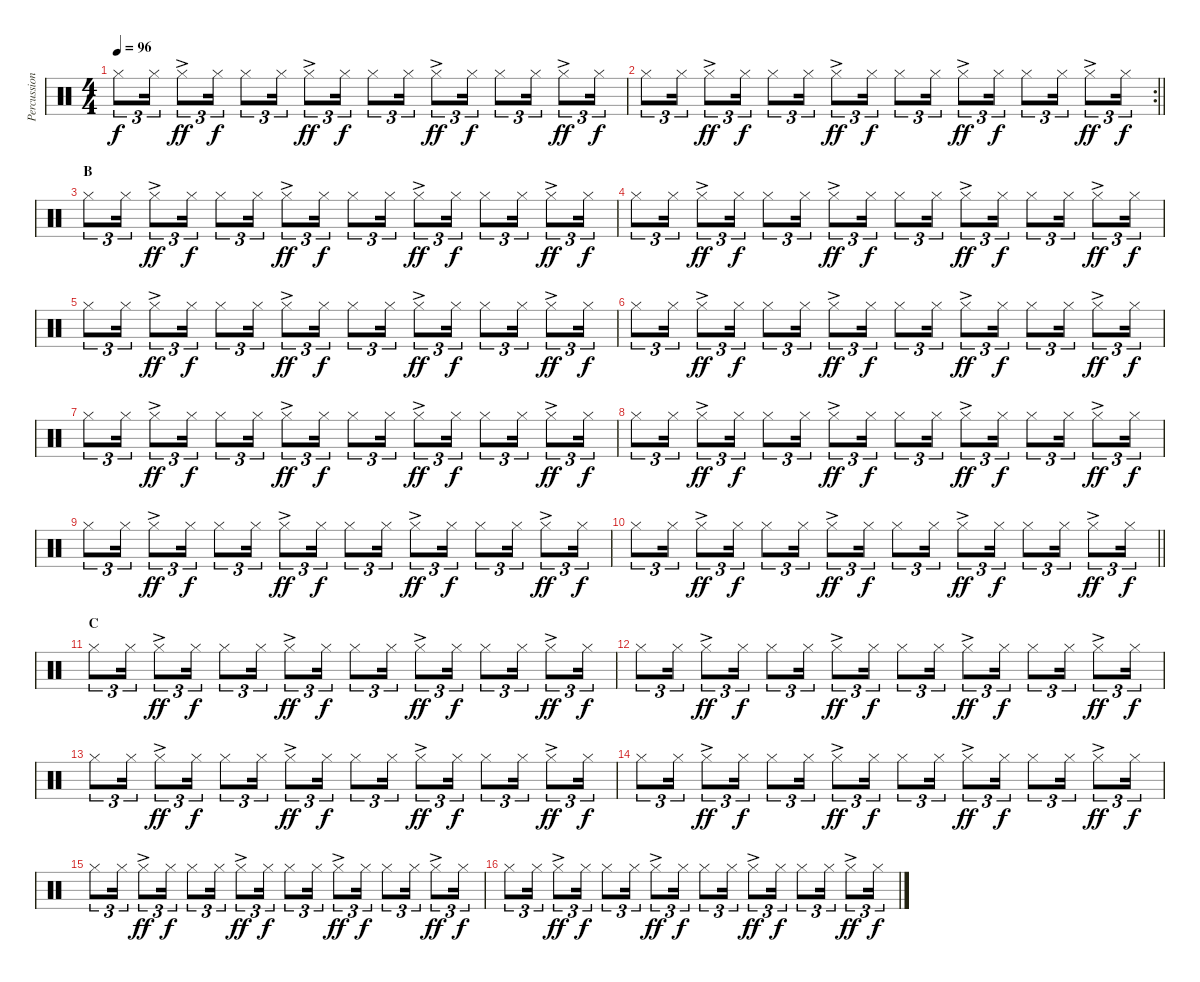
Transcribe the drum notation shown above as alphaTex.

\track ("Percussion" "Percussion") {instrument percussion}
\staff {score}
\articulation defaults
\ts (4 4)
\tempo 96
\clef neutral
\ks c "Hi-Hat (closed)".8{tu (3 2) dy f} "Hi-Hat (closed)".16{tu (3 2)} "Hi-Hat (closed)"{ac}.8{tu (3 2) dy ff} "Hi-Hat (closed)".16{tu (3 2) dy f} "Hi-Hat (closed)".8{tu (3 2)} "Hi-Hat (closed)".16{tu (3 2)} "Hi-Hat (closed)"{ac}.8{tu (3 2) dy ff} "Hi-Hat (closed)".16{tu (3 2) dy f} "Hi-Hat (closed)".8{tu (3 2)} "Hi-Hat (closed)".16{tu (3 2)} "Hi-Hat (closed)"{ac}.8{tu (3 2) dy ff} "Hi-Hat (closed)".16{tu (3 2) dy f} "Hi-Hat (closed)".8{tu (3 2)} "Hi-Hat (closed)".16{tu (3 2)} "Hi-Hat (closed)"{ac}.8{tu (3 2) dy ff} "Hi-Hat (closed)".16{tu (3 2) dy f}
|
\rc 2
\barLineRight lightlight "Hi-Hat (closed)".8{tu (3 2)} "Hi-Hat (closed)".16{tu (3 2)} "Hi-Hat (closed)"{ac}.8{tu (3 2) dy ff} "Hi-Hat (closed)".16{tu (3 2) dy f} "Hi-Hat (closed)".8{tu (3 2)} "Hi-Hat (closed)".16{tu (3 2)} "Hi-Hat (closed)"{ac}.8{tu (3 2) dy ff} "Hi-Hat (closed)".16{tu (3 2) dy f} "Hi-Hat (closed)".8{tu (3 2)} "Hi-Hat (closed)".16{tu (3 2)} "Hi-Hat (closed)"{ac}.8{tu (3 2) dy ff} "Hi-Hat (closed)".16{tu (3 2) dy f} "Hi-Hat (closed)".8{tu (3 2)} "Hi-Hat (closed)".16{tu (3 2)} "Hi-Hat (closed)"{ac}.8{tu (3 2) dy ff} "Hi-Hat (closed)".16{tu (3 2) dy f}
|
\section ("" "B")
"Hi-Hat (closed)".8{tu (3 2)} "Hi-Hat (closed)".16{tu (3 2)} "Hi-Hat (closed)"{ac}.8{tu (3 2) dy ff} "Hi-Hat (closed)".16{tu (3 2) dy f} "Hi-Hat (closed)".8{tu (3 2)} "Hi-Hat (closed)".16{tu (3 2)} "Hi-Hat (closed)"{ac}.8{tu (3 2) dy ff} "Hi-Hat (closed)".16{tu (3 2) dy f} "Hi-Hat (closed)".8{tu (3 2)} "Hi-Hat (closed)".16{tu (3 2)} "Hi-Hat (closed)"{ac}.8{tu (3 2) dy ff} "Hi-Hat (closed)".16{tu (3 2) dy f} "Hi-Hat (closed)".8{tu (3 2)} "Hi-Hat (closed)".16{tu (3 2)} "Hi-Hat (closed)"{ac}.8{tu (3 2) dy ff} "Hi-Hat (closed)".16{tu (3 2) dy f} |
"Hi-Hat (closed)".8{tu (3 2)} "Hi-Hat (closed)".16{tu (3 2)} "Hi-Hat (closed)"{ac}.8{tu (3 2) dy ff} "Hi-Hat (closed)".16{tu (3 2) dy f} "Hi-Hat (closed)".8{tu (3 2)} "Hi-Hat (closed)".16{tu (3 2)} "Hi-Hat (closed)"{ac}.8{tu (3 2) dy ff} "Hi-Hat (closed)".16{tu (3 2) dy f} "Hi-Hat (closed)".8{tu (3 2)} "Hi-Hat (closed)".16{tu (3 2)} "Hi-Hat (closed)"{ac}.8{tu (3 2) dy ff} "Hi-Hat (closed)".16{tu (3 2) dy f} "Hi-Hat (closed)".8{tu (3 2)} "Hi-Hat (closed)".16{tu (3 2)} "Hi-Hat (closed)"{ac}.8{tu (3 2) dy ff} "Hi-Hat (closed)".16{tu (3 2) dy f} |
"Hi-Hat (closed)".8{tu (3 2)} "Hi-Hat (closed)".16{tu (3 2)} "Hi-Hat (closed)"{ac}.8{tu (3 2) dy ff} "Hi-Hat (closed)".16{tu (3 2) dy f} "Hi-Hat (closed)".8{tu (3 2)} "Hi-Hat (closed)".16{tu (3 2)} "Hi-Hat (closed)"{ac}.8{tu (3 2) dy ff} "Hi-Hat (closed)".16{tu (3 2) dy f} "Hi-Hat (closed)".8{tu (3 2)} "Hi-Hat (closed)".16{tu (3 2)} "Hi-Hat (closed)"{ac}.8{tu (3 2) dy ff} "Hi-Hat (closed)".16{tu (3 2) dy f} "Hi-Hat (closed)".8{tu (3 2)} "Hi-Hat (closed)".16{tu (3 2)} "Hi-Hat (closed)"{ac}.8{tu (3 2) dy ff} "Hi-Hat (closed)".16{tu (3 2) dy f} |
"Hi-Hat (closed)".8{tu (3 2)} "Hi-Hat (closed)".16{tu (3 2)} "Hi-Hat (closed)"{ac}.8{tu (3 2) dy ff} "Hi-Hat (closed)".16{tu (3 2) dy f} "Hi-Hat (closed)".8{tu (3 2)} "Hi-Hat (closed)".16{tu (3 2)} "Hi-Hat (closed)"{ac}.8{tu (3 2) dy ff} "Hi-Hat (closed)".16{tu (3 2) dy f} "Hi-Hat (closed)".8{tu (3 2)} "Hi-Hat (closed)".16{tu (3 2)} "Hi-Hat (closed)"{ac}.8{tu (3 2) dy ff} "Hi-Hat (closed)".16{tu (3 2) dy f} "Hi-Hat (closed)".8{tu (3 2)} "Hi-Hat (closed)".16{tu (3 2)} "Hi-Hat (closed)"{ac}.8{tu (3 2) dy ff} "Hi-Hat (closed)".16{tu (3 2) dy f} |
"Hi-Hat (closed)".8{tu (3 2)} "Hi-Hat (closed)".16{tu (3 2)} "Hi-Hat (closed)"{ac}.8{tu (3 2) dy ff} "Hi-Hat (closed)".16{tu (3 2) dy f} "Hi-Hat (closed)".8{tu (3 2)} "Hi-Hat (closed)".16{tu (3 2)} "Hi-Hat (closed)"{ac}.8{tu (3 2) dy ff} "Hi-Hat (closed)".16{tu (3 2) dy f} "Hi-Hat (closed)".8{tu (3 2)} "Hi-Hat (closed)".16{tu (3 2)} "Hi-Hat (closed)"{ac}.8{tu (3 2) dy ff} "Hi-Hat (closed)".16{tu (3 2) dy f} "Hi-Hat (closed)".8{tu (3 2)} "Hi-Hat (closed)".16{tu (3 2)} "Hi-Hat (closed)"{ac}.8{tu (3 2) dy ff} "Hi-Hat (closed)".16{tu (3 2) dy f} |
"Hi-Hat (closed)".8{tu (3 2)} "Hi-Hat (closed)".16{tu (3 2)} "Hi-Hat (closed)"{ac}.8{tu (3 2) dy ff} "Hi-Hat (closed)".16{tu (3 2) dy f} "Hi-Hat (closed)".8{tu (3 2)} "Hi-Hat (closed)".16{tu (3 2)} "Hi-Hat (closed)"{ac}.8{tu (3 2) dy ff} "Hi-Hat (closed)".16{tu (3 2) dy f} "Hi-Hat (closed)".8{tu (3 2)} "Hi-Hat (closed)".16{tu (3 2)} "Hi-Hat (closed)"{ac}.8{tu (3 2) dy ff} "Hi-Hat (closed)".16{tu (3 2) dy f} "Hi-Hat (closed)".8{tu (3 2)} "Hi-Hat (closed)".16{tu (3 2)} "Hi-Hat (closed)"{ac}.8{tu (3 2) dy ff} "Hi-Hat (closed)".16{tu (3 2) dy f} |
"Hi-Hat (closed)".8{tu (3 2)} "Hi-Hat (closed)".16{tu (3 2)} "Hi-Hat (closed)"{ac}.8{tu (3 2) dy ff} "Hi-Hat (closed)".16{tu (3 2) dy f} "Hi-Hat (closed)".8{tu (3 2)} "Hi-Hat (closed)".16{tu (3 2)} "Hi-Hat (closed)"{ac}.8{tu (3 2) dy ff} "Hi-Hat (closed)".16{tu (3 2) dy f} "Hi-Hat (closed)".8{tu (3 2)} "Hi-Hat (closed)".16{tu (3 2)} "Hi-Hat (closed)"{ac}.8{tu (3 2) dy ff} "Hi-Hat (closed)".16{tu (3 2) dy f} "Hi-Hat (closed)".8{tu (3 2)} "Hi-Hat (closed)".16{tu (3 2)} "Hi-Hat (closed)"{ac}.8{tu (3 2) dy ff} "Hi-Hat (closed)".16{tu (3 2) dy f} |
\barLineRight lightlight "Hi-Hat (closed)".8{tu (3 2)} "Hi-Hat (closed)".16{tu (3 2)} "Hi-Hat (closed)"{ac}.8{tu (3 2) dy ff} "Hi-Hat (closed)".16{tu (3 2) dy f} "Hi-Hat (closed)".8{tu (3 2)} "Hi-Hat (closed)".16{tu (3 2)} "Hi-Hat (closed)"{ac}.8{tu (3 2) dy ff} "Hi-Hat (closed)".16{tu (3 2) dy f} "Hi-Hat (closed)".8{tu (3 2)} "Hi-Hat (closed)".16{tu (3 2)} "Hi-Hat (closed)"{ac}.8{tu (3 2) dy ff} "Hi-Hat (closed)".16{tu (3 2) dy f} "Hi-Hat (closed)".8{tu (3 2)} "Hi-Hat (closed)".16{tu (3 2)} "Hi-Hat (closed)"{ac}.8{tu (3 2) dy ff} "Hi-Hat (closed)".16{tu (3 2) dy f}
|
\section ("" "C")
"Hi-Hat (closed)".8{tu (3 2)} "Hi-Hat (closed)".16{tu (3 2)} "Hi-Hat (closed)"{ac}.8{tu (3 2) dy ff} "Hi-Hat (closed)".16{tu (3 2) dy f} "Hi-Hat (closed)".8{tu (3 2)} "Hi-Hat (closed)".16{tu (3 2)} "Hi-Hat (closed)"{ac}.8{tu (3 2) dy ff} "Hi-Hat (closed)".16{tu (3 2) dy f} "Hi-Hat (closed)".8{tu (3 2)} "Hi-Hat (closed)".16{tu (3 2)} "Hi-Hat (closed)"{ac}.8{tu (3 2) dy ff} "Hi-Hat (closed)".16{tu (3 2) dy f} "Hi-Hat (closed)".8{tu (3 2)} "Hi-Hat (closed)".16{tu (3 2)} "Hi-Hat (closed)"{ac}.8{tu (3 2) dy ff} "Hi-Hat (closed)".16{tu (3 2) dy f} |
"Hi-Hat (closed)".8{tu (3 2)} "Hi-Hat (closed)".16{tu (3 2)} "Hi-Hat (closed)"{ac}.8{tu (3 2) dy ff} "Hi-Hat (closed)".16{tu (3 2) dy f} "Hi-Hat (closed)".8{tu (3 2)} "Hi-Hat (closed)".16{tu (3 2)} "Hi-Hat (closed)"{ac}.8{tu (3 2) dy ff} "Hi-Hat (closed)".16{tu (3 2) dy f} "Hi-Hat (closed)".8{tu (3 2)} "Hi-Hat (closed)".16{tu (3 2)} "Hi-Hat (closed)"{ac}.8{tu (3 2) dy ff} "Hi-Hat (closed)".16{tu (3 2) dy f} "Hi-Hat (closed)".8{tu (3 2)} "Hi-Hat (closed)".16{tu (3 2)} "Hi-Hat (closed)"{ac}.8{tu (3 2) dy ff} "Hi-Hat (closed)".16{tu (3 2) dy f} |
"Hi-Hat (closed)".8{tu (3 2)} "Hi-Hat (closed)".16{tu (3 2)} "Hi-Hat (closed)"{ac}.8{tu (3 2) dy ff} "Hi-Hat (closed)".16{tu (3 2) dy f} "Hi-Hat (closed)".8{tu (3 2)} "Hi-Hat (closed)".16{tu (3 2)} "Hi-Hat (closed)"{ac}.8{tu (3 2) dy ff} "Hi-Hat (closed)".16{tu (3 2) dy f} "Hi-Hat (closed)".8{tu (3 2)} "Hi-Hat (closed)".16{tu (3 2)} "Hi-Hat (closed)"{ac}.8{tu (3 2) dy ff} "Hi-Hat (closed)".16{tu (3 2) dy f} "Hi-Hat (closed)".8{tu (3 2)} "Hi-Hat (closed)".16{tu (3 2)} "Hi-Hat (closed)"{ac}.8{tu (3 2) dy ff} "Hi-Hat (closed)".16{tu (3 2) dy f} |
"Hi-Hat (closed)".8{tu (3 2)} "Hi-Hat (closed)".16{tu (3 2)} "Hi-Hat (closed)"{ac}.8{tu (3 2) dy ff} "Hi-Hat (closed)".16{tu (3 2) dy f} "Hi-Hat (closed)".8{tu (3 2)} "Hi-Hat (closed)".16{tu (3 2)} "Hi-Hat (closed)"{ac}.8{tu (3 2) dy ff} "Hi-Hat (closed)".16{tu (3 2) dy f} "Hi-Hat (closed)".8{tu (3 2)} "Hi-Hat (closed)".16{tu (3 2)} "Hi-Hat (closed)"{ac}.8{tu (3 2) dy ff} "Hi-Hat (closed)".16{tu (3 2) dy f} "Hi-Hat (closed)".8{tu (3 2)} "Hi-Hat (closed)".16{tu (3 2)} "Hi-Hat (closed)"{ac}.8{tu (3 2) dy ff} "Hi-Hat (closed)".16{tu (3 2) dy f} |
"Hi-Hat (closed)".8{tu (3 2)} "Hi-Hat (closed)".16{tu (3 2)} "Hi-Hat (closed)"{ac}.8{tu (3 2) dy ff} "Hi-Hat (closed)".16{tu (3 2) dy f} "Hi-Hat (closed)".8{tu (3 2)} "Hi-Hat (closed)".16{tu (3 2)} "Hi-Hat (closed)"{ac}.8{tu (3 2) dy ff} "Hi-Hat (closed)".16{tu (3 2) dy f} "Hi-Hat (closed)".8{tu (3 2)} "Hi-Hat (closed)".16{tu (3 2)} "Hi-Hat (closed)"{ac}.8{tu (3 2) dy ff} "Hi-Hat (closed)".16{tu (3 2) dy f} "Hi-Hat (closed)".8{tu (3 2)} "Hi-Hat (closed)".16{tu (3 2)} "Hi-Hat (closed)"{ac}.8{tu (3 2) dy ff} "Hi-Hat (closed)".16{tu (3 2) dy f} |
"Hi-Hat (closed)".8{tu (3 2)} "Hi-Hat (closed)".16{tu (3 2)} "Hi-Hat (closed)"{ac}.8{tu (3 2) dy ff} "Hi-Hat (closed)".16{tu (3 2) dy f} "Hi-Hat (closed)".8{tu (3 2)} "Hi-Hat (closed)".16{tu (3 2)} "Hi-Hat (closed)"{ac}.8{tu (3 2) dy ff} "Hi-Hat (closed)".16{tu (3 2) dy f} "Hi-Hat (closed)".8{tu (3 2)} "Hi-Hat (closed)".16{tu (3 2)} "Hi-Hat (closed)"{ac}.8{tu (3 2) dy ff} "Hi-Hat (closed)".16{tu (3 2) dy f} "Hi-Hat (closed)".8{tu (3 2)} "Hi-Hat (closed)".16{tu (3 2)} "Hi-Hat (closed)"{ac}.8{tu (3 2) dy ff} "Hi-Hat (closed)".16{tu (3 2) dy f}
